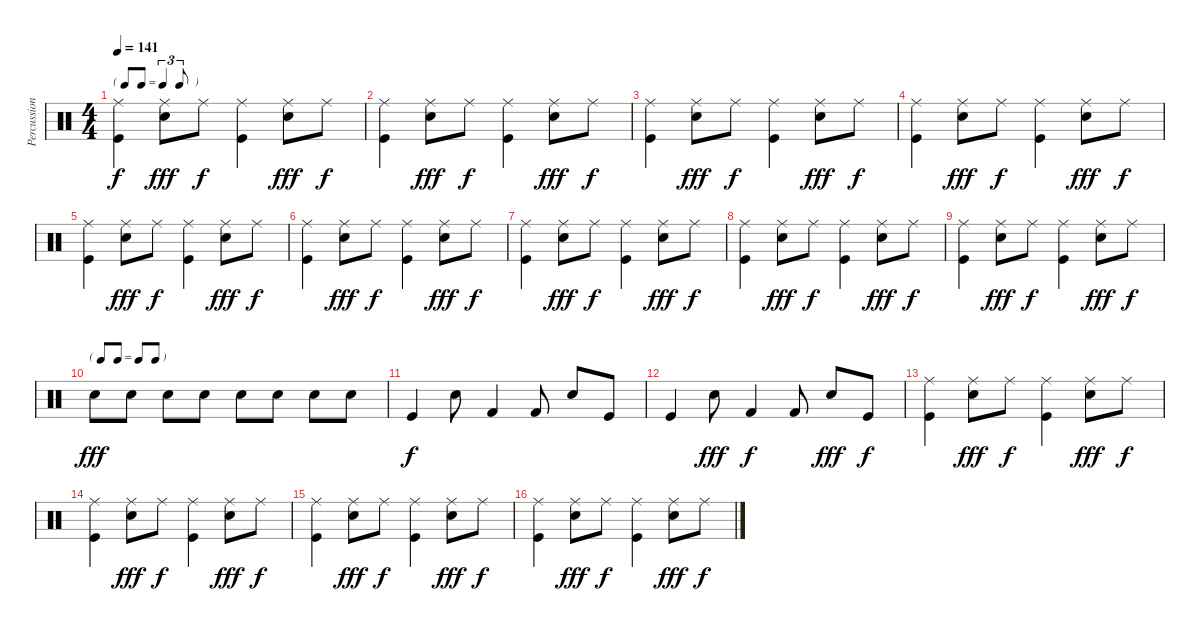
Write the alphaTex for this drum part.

\track ("Percussions" "Percussion") {mute instrument percussion}
\staff {score}
\articulation defaults
\ts (4 4)
\tf triplet8th
\tempo 141
\clef neutral
\ks c
("Kick (hit)" "Ride (middle)").4{dy f} ("Snare (hit) 2" "Ride (middle)").8{dy fff} "Ride (middle)".8{dy f} ("Kick (hit)" "Ride (middle)").4 ("Snare (hit) 2" "Ride (middle)").8{dy fff} "Ride (middle)".8{dy f} |
("Kick (hit)" "Ride (middle)").4 ("Snare (hit) 2" "Ride (middle)").8{dy fff} "Ride (middle)".8{dy f} ("Kick (hit)" "Ride (middle)").4 ("Snare (hit) 2" "Ride (middle)").8{dy fff} "Ride (middle)".8{dy f} |
("Kick (hit)" "Ride (middle)").4 ("Snare (hit) 2" "Ride (middle)").8{dy fff} "Ride (middle)".8{dy f} ("Kick (hit)" "Ride (middle)").4 ("Snare (hit) 2" "Ride (middle)").8{dy fff} "Ride (middle)".8{dy f} |
("Kick (hit)" "Ride (middle)").4 ("Snare (hit) 2" "Ride (middle)").8{dy fff} "Ride (middle)".8{dy f} ("Kick (hit)" "Ride (middle)").4 ("Snare (hit) 2" "Ride (middle)").8{dy fff} "Ride (middle)".8{dy f} |
("Kick (hit)" "Ride (middle)").4 ("Snare (hit) 2" "Ride (middle)").8{dy fff} "Ride (middle)".8{dy f} ("Kick (hit)" "Ride (middle)").4 ("Snare (hit) 2" "Ride (middle)").8{dy fff} "Ride (middle)".8{dy f} |
("Kick (hit)" "Ride (middle)").4 ("Snare (hit) 2" "Ride (middle)").8{dy fff} "Ride (middle)".8{dy f} ("Kick (hit)" "Ride (middle)").4 ("Snare (hit) 2" "Ride (middle)").8{dy fff} "Ride (middle)".8{dy f} |
("Kick (hit)" "Ride (middle)").4 ("Snare (hit) 2" "Ride (middle)").8{dy fff} "Ride (middle)".8{dy f} ("Kick (hit)" "Ride (middle)").4 ("Snare (hit) 2" "Ride (middle)").8{dy fff} "Ride (middle)".8{dy f} |
("Kick (hit)" "Ride (middle)").4 ("Snare (hit) 2" "Ride (middle)").8{dy fff} "Ride (middle)".8{dy f} ("Kick (hit)" "Ride (middle)").4 ("Snare (hit) 2" "Ride (middle)").8{dy fff} "Ride (middle)".8{dy f} |
("Kick (hit)" "Ride (middle)").4 ("Snare (hit) 2" "Ride (middle)").8{dy fff} "Ride (middle)".8{dy f} ("Kick (hit)" "Ride (middle)").4 ("Snare (hit) 2" "Ride (middle)").8{dy fff} "Ride (middle)".8{dy f} |
\tf none "Snare (hit) 2".8{dy fff} "Snare (hit) 2".8 "Snare (hit) 2".8 "Snare (hit) 2".8 "Snare (hit) 2".8 "Snare (hit) 2".8 "Snare (hit) 2".8 "Snare (hit) 2".8
|
"Kick (hit)".4{dy f} "Snare (hit) 2".8 "Kick (hit) 2".4 "Kick (hit) 2".8 "Snare (hit) 2".8 "Kick (hit)".8 |
"Kick (hit)".4 "Snare (hit) 2".8{dy fff} "Kick (hit) 2".4{dy f} "Kick (hit) 2".8 "Snare (hit) 2".8{dy fff} "Kick (hit)".8{dy f} |
("Kick (hit)" "Ride (middle)").4 ("Snare (hit) 2" "Ride (middle)").8{dy fff} "Ride (middle)".8{dy f} ("Kick (hit)" "Ride (middle)").4 ("Snare (hit) 2" "Ride (middle)").8{dy fff} "Ride (middle)".8{dy f} |
("Kick (hit)" "Ride (middle)").4 ("Snare (hit) 2" "Ride (middle)").8{dy fff} "Ride (middle)".8{dy f} ("Kick (hit)" "Ride (middle)").4 ("Snare (hit) 2" "Ride (middle)").8{dy fff} "Ride (middle)".8{dy f} |
("Kick (hit)" "Ride (middle)").4 ("Snare (hit) 2" "Ride (middle)").8{dy fff} "Ride (middle)".8{dy f} ("Kick (hit)" "Ride (middle)").4 ("Snare (hit) 2" "Ride (middle)").8{dy fff} "Ride (middle)".8{dy f} |
("Kick (hit)" "Ride (middle)").4 ("Snare (hit) 2" "Ride (middle)").8{dy fff} "Ride (middle)".8{dy f} ("Kick (hit)" "Ride (middle)").4 ("Snare (hit) 2" "Ride (middle)").8{dy fff} "Ride (middle)".8{dy f}
